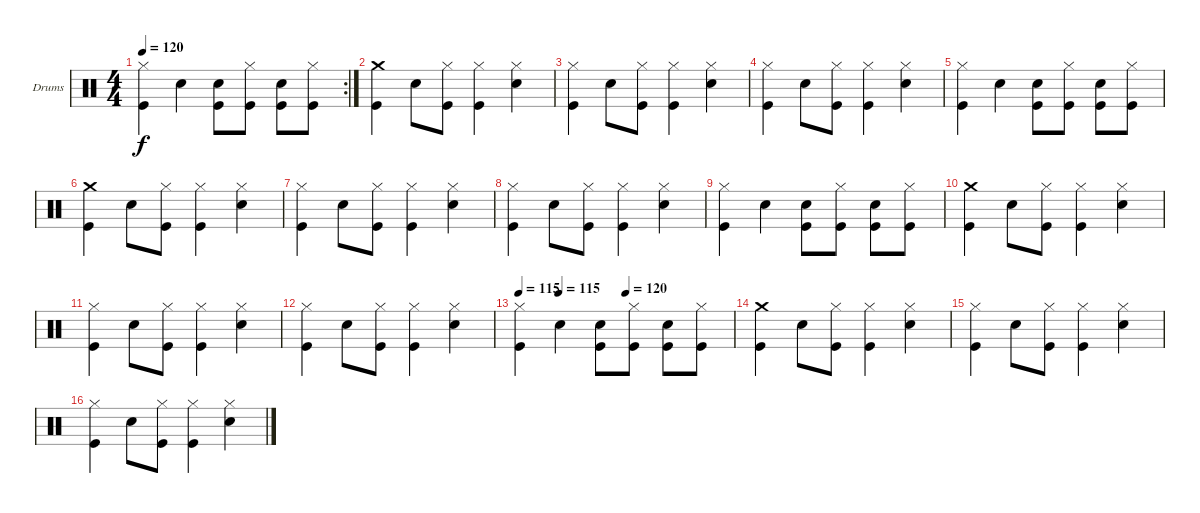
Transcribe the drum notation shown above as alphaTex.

\defaultSystemsLayout 4
\bracketExtendMode groupsimilarinstruments
\firstSystemTrackNameOrientation horizontal
\otherSystemsTrackNameOrientation horizontal
\track ("Aleksei Lyubavin" "Drums") {instrument percussion}
\staff {score}
\articulation defaults
\rc 2
\ts (4 4)
\tempo 120
\clef neutral
\ks c
("Hi-Hat (closed)" "Kick (hit)").4{dy f} "Snare (hit) 2".4 ("Kick (hit)" "Snare (hit) 2").8 ("Hi-Hat (closed)" "Kick (hit)").8 ("Kick (hit)" "Snare (hit) 2").8 ("Hi-Hat (closed)" "Kick (hit)").8 |
("Crash medium (hit)" "Kick (hit)").4 "Snare (hit) 2".8 ("Hi-Hat (closed)" "Kick (hit)").8 ("Hi-Hat (closed)" "Kick (hit)").4 ("Hi-Hat (closed)" "Snare (hit) 2").4 |
("Hi-Hat (closed)" "Kick (hit)").4 "Snare (hit) 2".8 ("Hi-Hat (closed)" "Kick (hit)").8 ("Hi-Hat (closed)" "Kick (hit)").4 ("Hi-Hat (closed)" "Snare (hit) 2").4 |
("Hi-Hat (closed)" "Kick (hit)").4 "Snare (hit) 2".8 ("Hi-Hat (closed)" "Kick (hit)").8 ("Hi-Hat (closed)" "Kick (hit)").4 ("Hi-Hat (closed)" "Snare (hit) 2").4 |
("Hi-Hat (closed)" "Kick (hit)").4 "Snare (hit) 2".4 ("Kick (hit)" "Snare (hit) 2").8 ("Hi-Hat (closed)" "Kick (hit)").8 ("Kick (hit)" "Snare (hit) 2").8 ("Hi-Hat (closed)" "Kick (hit)").8 |
("Crash medium (hit)" "Kick (hit)").4 "Snare (hit) 2".8 ("Hi-Hat (closed)" "Kick (hit)").8 ("Hi-Hat (closed)" "Kick (hit)").4 ("Hi-Hat (closed)" "Snare (hit) 2").4 |
("Hi-Hat (closed)" "Kick (hit)").4 "Snare (hit) 2".8 ("Hi-Hat (closed)" "Kick (hit)").8 ("Hi-Hat (closed)" "Kick (hit)").4 ("Hi-Hat (closed)" "Snare (hit) 2").4 |
("Hi-Hat (closed)" "Kick (hit)").4 "Snare (hit) 2".8 ("Hi-Hat (closed)" "Kick (hit)").8 ("Hi-Hat (closed)" "Kick (hit)").4 ("Hi-Hat (closed)" "Snare (hit) 2").4 |
("Hi-Hat (closed)" "Kick (hit)").4 "Snare (hit) 2".4 ("Kick (hit)" "Snare (hit) 2").8 ("Hi-Hat (closed)" "Kick (hit)").8 ("Kick (hit)" "Snare (hit) 2").8 ("Hi-Hat (closed)" "Kick (hit)").8 |
("Crash medium (hit)" "Kick (hit)").4 "Snare (hit) 2".8 ("Hi-Hat (closed)" "Kick (hit)").8 ("Hi-Hat (closed)" "Kick (hit)").4 ("Hi-Hat (closed)" "Snare (hit) 2").4 |
("Hi-Hat (closed)" "Kick (hit)").4 "Snare (hit) 2".8 ("Hi-Hat (closed)" "Kick (hit)").8 ("Hi-Hat (closed)" "Kick (hit)").4 ("Hi-Hat (closed)" "Snare (hit) 2").4 |
("Hi-Hat (closed)" "Kick (hit)").4 "Snare (hit) 2".8 ("Hi-Hat (closed)" "Kick (hit)").8 ("Hi-Hat (closed)" "Kick (hit)").4 ("Hi-Hat (closed)" "Snare (hit) 2").4 |
\tempo 115
\tempo (115 0.1875)
\tempo (120 0.5)
("Hi-Hat (closed)" "Kick (hit)").4 "Snare (hit) 2".4 ("Kick (hit)" "Snare (hit) 2").8 ("Hi-Hat (closed)" "Kick (hit)").8 ("Kick (hit)" "Snare (hit) 2").8 ("Hi-Hat (closed)" "Kick (hit)").8 |
("Crash medium (hit)" "Kick (hit)").4 "Snare (hit) 2".8 ("Hi-Hat (closed)" "Kick (hit)").8 ("Hi-Hat (closed)" "Kick (hit)").4 ("Hi-Hat (closed)" "Snare (hit) 2").4 |
("Hi-Hat (closed)" "Kick (hit)").4 "Snare (hit) 2".8 ("Hi-Hat (closed)" "Kick (hit)").8 ("Hi-Hat (closed)" "Kick (hit)").4 ("Hi-Hat (closed)" "Snare (hit) 2").4 |
("Hi-Hat (closed)" "Kick (hit)").4 "Snare (hit) 2".8 ("Hi-Hat (closed)" "Kick (hit)").8 ("Hi-Hat (closed)" "Kick (hit)").4 ("Hi-Hat (closed)" "Snare (hit) 2").4
